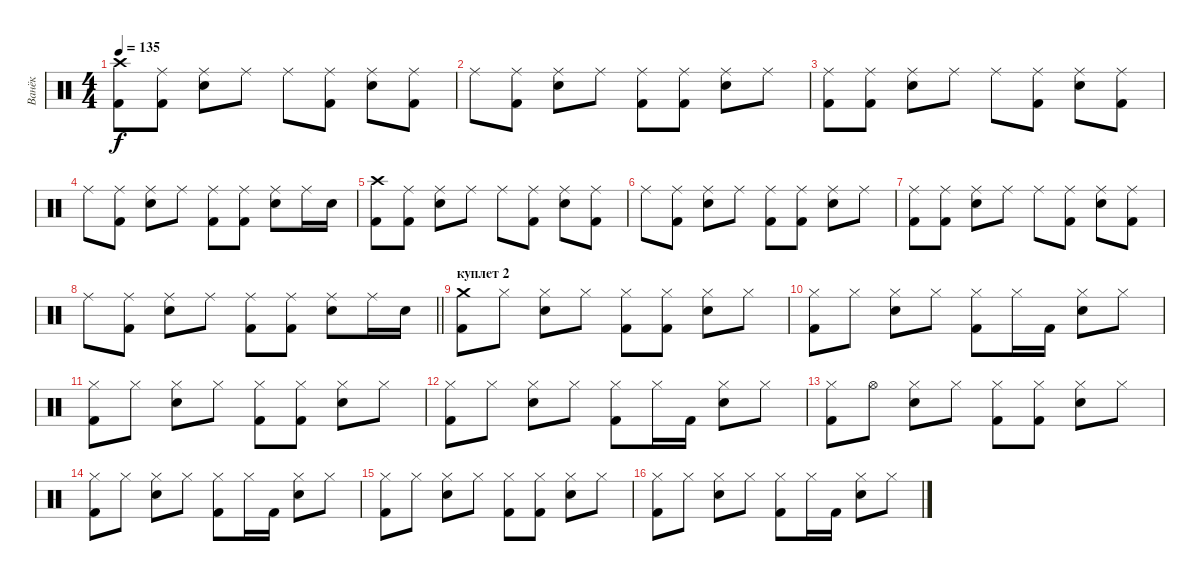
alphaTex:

\track ("Ванёк" "Ванёк") {instrument percussion}
\staff {score}
\articulation defaults
\ts (4 4)
\tempo 135
\clef neutral
\ks c
("Crash high (hit)" "Kick (hit) 2").8{dy f} ("Ride (middle)" "Kick (hit) 2").8 ("Ride (middle)" "Snare (hit) 2").8 "Ride (middle)".8 "Ride (middle)".8 ("Ride (middle)" "Kick (hit) 2").8 ("Ride (middle)" "Snare (hit) 2").8 ("Ride (middle)" "Kick (hit) 2").8 |
"Ride (middle)".8 ("Ride (middle)" "Kick (hit) 2").8 ("Ride (middle)" "Snare (hit) 2").8 "Ride (middle)".8 ("Ride (middle)" "Kick (hit) 2").8 ("Ride (middle)" "Kick (hit) 2").8 ("Ride (middle)" "Snare (hit) 2").8 "Ride (middle)".8 |
("Ride (middle)" "Kick (hit) 2").8 ("Ride (middle)" "Kick (hit) 2").8 ("Ride (middle)" "Snare (hit) 2").8 "Ride (middle)".8 "Ride (middle)".8 ("Ride (middle)" "Kick (hit) 2").8 ("Ride (middle)" "Snare (hit) 2").8 ("Ride (middle)" "Kick (hit) 2").8 |
"Ride (middle)".8 ("Ride (middle)" "Kick (hit) 2").8 ("Ride (middle)" "Snare (hit) 2").8 "Ride (middle)".8 ("Ride (middle)" "Kick (hit) 2").8 ("Ride (middle)" "Kick (hit) 2").8 ("Ride (middle)" "Snare (hit) 2").8 "Ride (middle)".16 "Snare (hit) 2".16 |
("Crash high (hit)" "Kick (hit) 2").8 ("Ride (middle)" "Kick (hit) 2").8 ("Ride (middle)" "Snare (hit) 2").8 "Ride (middle)".8 "Ride (middle)".8 ("Ride (middle)" "Kick (hit) 2").8 ("Ride (middle)" "Snare (hit) 2").8 ("Ride (middle)" "Kick (hit) 2").8 |
"Ride (middle)".8 ("Ride (middle)" "Kick (hit) 2").8 ("Ride (middle)" "Snare (hit) 2").8 "Ride (middle)".8 ("Ride (middle)" "Kick (hit) 2").8 ("Ride (middle)" "Kick (hit) 2").8 ("Ride (middle)" "Snare (hit) 2").8 "Ride (middle)".8 |
("Ride (middle)" "Kick (hit) 2").8 ("Ride (middle)" "Kick (hit) 2").8 ("Ride (middle)" "Snare (hit) 2").8 "Ride (middle)".8 "Ride (middle)".8 ("Ride (middle)" "Kick (hit) 2").8 ("Ride (middle)" "Snare (hit) 2").8 ("Ride (middle)" "Kick (hit) 2").8 |
\barLineRight lightlight "Ride (middle)".8
("Ride (middle)" "Kick (hit) 2").8 ("Ride (middle)" "Snare (hit) 2").8 "Ride (middle)".8 ("Ride (middle)" "Kick (hit) 2").8 ("Ride (middle)" "Kick (hit) 2").8 ("Ride (middle)" "Snare (hit) 2").8 "Ride (middle)".16 "Snare (hit) 2".16 |
\section ("" "куплет 2")
("Crash medium (hit)" "Kick (hit) 2").8 "Hi-Hat (closed)".8 ("Hi-Hat (closed)" "Snare (hit) 2").8 "Hi-Hat (closed)".8 ("Hi-Hat (closed)" "Kick (hit) 2").8 ("Hi-Hat (closed)" "Kick (hit) 2").8 ("Hi-Hat (closed)" "Snare (hit) 2").8 "Hi-Hat (closed)".8 |
("Hi-Hat (closed)" "Kick (hit) 2").8 "Hi-Hat (closed)".8 ("Hi-Hat (closed)" "Snare (hit) 2").8 "Hi-Hat (closed)".8 ("Hi-Hat (closed)" "Kick (hit) 2").8 "Hi-Hat (closed)".16 "Kick (hit) 2".16 ("Hi-Hat (closed)" "Snare (hit) 2").8 "Hi-Hat (closed)".8 |
("Hi-Hat (closed)" "Kick (hit) 2").8 "Hi-Hat (closed)".8 ("Hi-Hat (closed)" "Snare (hit) 2").8 "Hi-Hat (closed)".8 ("Hi-Hat (closed)" "Kick (hit) 2").8 ("Hi-Hat (closed)" "Kick (hit) 2").8 ("Hi-Hat (closed)" "Snare (hit) 2").8 "Hi-Hat (closed)".8 |
("Hi-Hat (closed)" "Kick (hit) 2").8 "Hi-Hat (closed)".8 ("Hi-Hat (closed)" "Snare (hit) 2").8 "Hi-Hat (closed)".8 ("Hi-Hat (closed)" "Kick (hit) 2").8 "Hi-Hat (closed)".16 "Kick (hit) 2".16 ("Hi-Hat (closed)" "Snare (hit) 2").8 "Hi-Hat (closed)".8 |
("Hi-Hat (closed)" "Kick (hit) 2").8 "Hi-Hat (open)".8 ("Hi-Hat (closed)" "Snare (hit) 2").8 "Hi-Hat (closed)".8 ("Hi-Hat (closed)" "Kick (hit) 2").8 ("Hi-Hat (closed)" "Kick (hit) 2").8 ("Hi-Hat (closed)" "Snare (hit) 2").8 "Hi-Hat (closed)".8 |
("Hi-Hat (closed)" "Kick (hit) 2").8 "Hi-Hat (closed)".8 ("Hi-Hat (closed)" "Snare (hit) 2").8 "Hi-Hat (closed)".8 ("Hi-Hat (closed)" "Kick (hit) 2").8 "Hi-Hat (closed)".16 "Kick (hit) 2".16 ("Hi-Hat (closed)" "Snare (hit) 2").8 "Hi-Hat (closed)".8 |
("Hi-Hat (closed)" "Kick (hit) 2").8 "Hi-Hat (closed)".8 ("Hi-Hat (closed)" "Snare (hit) 2").8 "Hi-Hat (closed)".8 ("Hi-Hat (closed)" "Kick (hit) 2").8 ("Hi-Hat (closed)" "Kick (hit) 2").8 ("Hi-Hat (closed)" "Snare (hit) 2").8 "Hi-Hat (closed)".8 |
("Hi-Hat (closed)" "Kick (hit) 2").8 "Hi-Hat (closed)".8 ("Hi-Hat (closed)" "Snare (hit) 2").8 "Hi-Hat (closed)".8 ("Hi-Hat (closed)" "Kick (hit) 2").8 "Hi-Hat (closed)".16 "Kick (hit) 2".16 ("Hi-Hat (closed)" "Snare (hit) 2").8 "Hi-Hat (closed)".8
